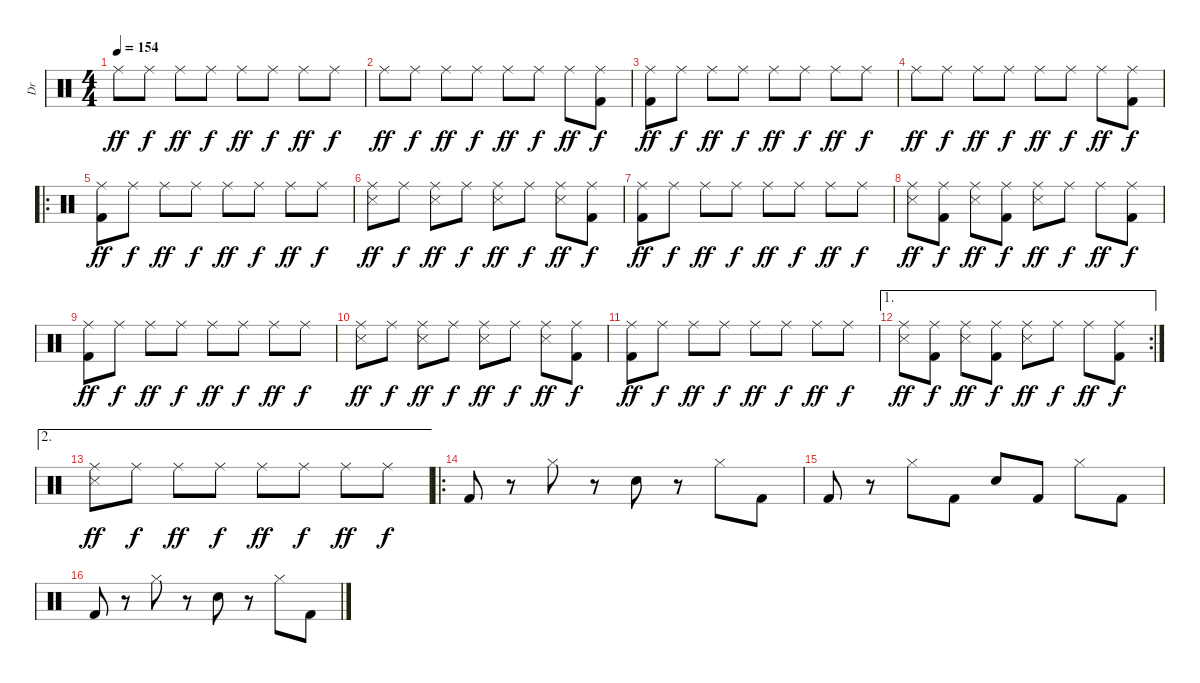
\track ("Dr" "Dr") {instrument percussion}
\staff {score}
\articulation defaults
\ts (4 4)
\tempo 154
\clef neutral
\ks c "Ride (middle)".8{dy ff} "Ride (middle)".8{dy f} "Ride (middle)".8{dy ff} "Ride (middle)".8{dy f} "Ride (middle)".8{dy ff} "Ride (middle)".8{dy f} "Ride (middle)".8{dy ff} "Ride (middle)".8{dy f}
|
"Ride (middle)".8{dy ff} "Ride (middle)".8{dy f} "Ride (middle)".8{dy ff} "Ride (middle)".8{dy f} "Ride (middle)".8{dy ff} "Ride (middle)".8{dy f} "Ride (middle)".8{dy ff} ("Ride (middle)" "Kick (hit) 2").8{dy f} |
("Ride (middle)" "Kick (hit) 2").8{dy ff} "Ride (middle)".8{dy f} "Ride (middle)".8{dy ff} "Ride (middle)".8{dy f} "Ride (middle)".8{dy ff} "Ride (middle)".8{dy f} "Ride (middle)".8{dy ff} "Ride (middle)".8{dy f} |
"Ride (middle)".8{dy ff} "Ride (middle)".8{dy f} "Ride (middle)".8{dy ff} "Ride (middle)".8{dy f} "Ride (middle)".8{dy ff} "Ride (middle)".8{dy f} "Ride (middle)".8{dy ff} ("Ride (middle)" "Kick (hit) 2").8{dy f} |
\ro
("Ride (middle)" "Kick (hit) 2").8{dy ff} "Ride (middle)".8{dy f} "Ride (middle)".8{dy ff} "Ride (middle)".8{dy f} "Ride (middle)".8{dy ff} "Ride (middle)".8{dy f} "Ride (middle)".8{dy ff} "Ride (middle)".8{dy f} |
("Ride (middle)" "Snare (side stick) 3").8{dy ff} "Ride (middle)".8{dy f} ("Ride (middle)" "Snare (side stick) 3").8{dy ff} "Ride (middle)".8{dy f} ("Ride (middle)" "Snare (side stick) 3").8{dy ff} "Ride (middle)".8{dy f} ("Ride (middle)" "Snare (side stick) 3").8{dy ff} ("Ride (middle)" "Kick (hit) 2").8{dy f} |
("Ride (middle)" "Kick (hit) 2").8{dy ff} "Ride (middle)".8{dy f} "Ride (middle)".8{dy ff} "Ride (middle)".8{dy f} "Ride (middle)".8{dy ff} "Ride (middle)".8{dy f} "Ride (middle)".8{dy ff} "Ride (middle)".8{dy f} |
("Ride (middle)" "Snare (side stick) 3").8{dy ff} ("Ride (middle)" "Kick (hit) 2").8{dy f} ("Ride (middle)" "Snare (side stick) 3").8{dy ff} ("Ride (middle)" "Kick (hit) 2").8{dy f} ("Ride (middle)" "Snare (side stick) 3").8{dy ff} "Ride (middle)".8{dy f} "Ride (middle)".8{dy ff} ("Ride (middle)" "Kick (hit) 2").8{dy f} |
("Ride (middle)" "Kick (hit) 2").8{dy ff} "Ride (middle)".8{dy f} "Ride (middle)".8{dy ff} "Ride (middle)".8{dy f} "Ride (middle)".8{dy ff} "Ride (middle)".8{dy f} "Ride (middle)".8{dy ff} "Ride (middle)".8{dy f} |
("Ride (middle)" "Snare (side stick) 3").8{dy ff} "Ride (middle)".8{dy f} ("Ride (middle)" "Snare (side stick) 3").8{dy ff} "Ride (middle)".8{dy f} ("Ride (middle)" "Snare (side stick) 3").8{dy ff} "Ride (middle)".8{dy f} ("Ride (middle)" "Snare (side stick) 3").8{dy ff} ("Ride (middle)" "Kick (hit) 2").8{dy f} |
("Ride (middle)" "Kick (hit) 2").8{dy ff} "Ride (middle)".8{dy f} "Ride (middle)".8{dy ff} "Ride (middle)".8{dy f} "Ride (middle)".8{dy ff} "Ride (middle)".8{dy f} "Ride (middle)".8{dy ff} "Ride (middle)".8{dy f} |
\ae 1
\rc 2
("Ride (middle)" "Snare (side stick) 3").8{dy ff} ("Ride (middle)" "Kick (hit) 2").8{dy f} ("Ride (middle)" "Snare (side stick) 3").8{dy ff} ("Ride (middle)" "Kick (hit) 2").8{dy f} ("Ride (middle)" "Snare (side stick) 3").8{dy ff} "Ride (middle)".8{dy f} "Ride (middle)".8{dy ff} ("Ride (middle)" "Kick (hit) 2").8{dy f} |
\ae 2
("Ride (middle)" "Snare (side stick) 3").8{dy ff} "Ride (middle)".8{dy f} "Ride (middle)".8{dy ff} "Ride (middle)".8{dy f} "Ride (middle)".8{dy ff} "Ride (middle)".8{dy f} "Ride (middle)".8{dy ff} "Ride (middle)".8{dy f} |
\ro "Kick (hit) 2".8
r.8 "Hi-Hat (closed)".8 r.8 "Electric Snare (hit)".8 r.8 "Hi-Hat (closed)".8 "Kick (hit) 2".8 |
"Kick (hit) 2".8 r.8 "Hi-Hat (closed)".8 "Kick (hit) 2".8 "Electric Snare (hit)".8 "Kick (hit) 2".8 "Hi-Hat (closed)".8 "Kick (hit) 2".8 |
"Kick (hit) 2".8 r.8 "Hi-Hat (closed)".8 r.8 "Electric Snare (hit)".8 r.8 "Hi-Hat (closed)".8 "Kick (hit) 2".8
